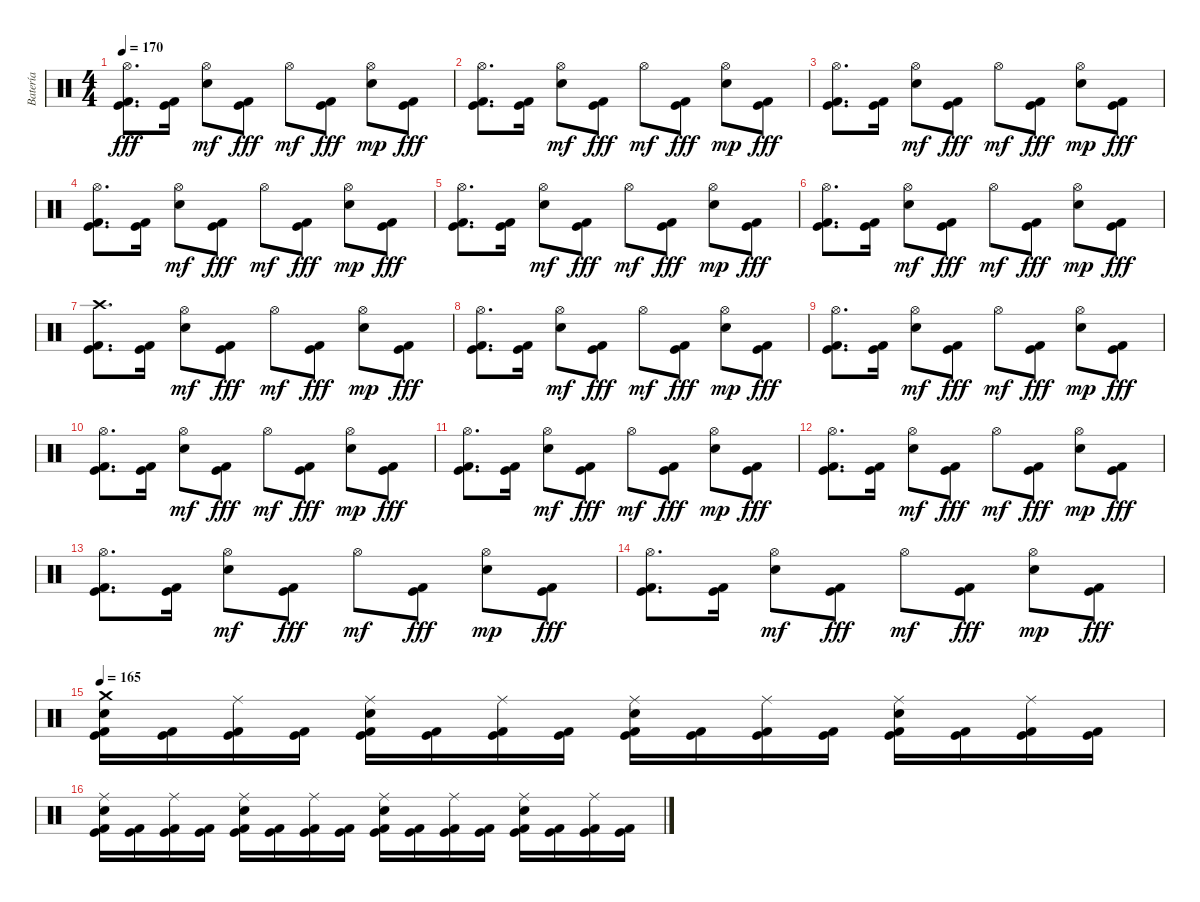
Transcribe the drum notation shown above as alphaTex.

\track ("Batería" "Batería") {instrument percussion}
\staff {score}
\articulation defaults
\ts (4 4)
\tempo 170
\clef neutral
\ks c
("Hi-Hat (open)" "Kick (hit) 2" "Kick (hit)").8{d dy fff} ("Kick (hit) 2" "Kick (hit)").16 ("Hi-Hat (open)" "Electric Snare (hit)").8{dy mf} ("Kick (hit) 2" "Kick (hit)").8{dy fff} "Hi-Hat (open)".8{dy mf} ("Kick (hit) 2" "Kick (hit)").8{dy fff} ("Hi-Hat (open)" "Electric Snare (hit)").8{dy mp} ("Kick (hit) 2" "Kick (hit)").8{dy fff} |
("Hi-Hat (open)" "Kick (hit) 2" "Kick (hit)").8{d} ("Kick (hit) 2" "Kick (hit)").16 ("Hi-Hat (open)" "Electric Snare (hit)").8{dy mf} ("Kick (hit) 2" "Kick (hit)").8{dy fff} "Hi-Hat (open)".8{dy mf} ("Kick (hit) 2" "Kick (hit)").8{dy fff} ("Hi-Hat (open)" "Electric Snare (hit)").8{dy mp} ("Kick (hit) 2" "Kick (hit)").8{dy fff} |
("Hi-Hat (open)" "Kick (hit) 2" "Kick (hit)").8{d} ("Kick (hit) 2" "Kick (hit)").16 ("Hi-Hat (open)" "Electric Snare (hit)").8{dy mf} ("Kick (hit) 2" "Kick (hit)").8{dy fff} "Hi-Hat (open)".8{dy mf} ("Kick (hit) 2" "Kick (hit)").8{dy fff} ("Hi-Hat (open)" "Electric Snare (hit)").8{dy mp} ("Kick (hit) 2" "Kick (hit)").8{dy fff} |
("Hi-Hat (open)" "Kick (hit) 2" "Kick (hit)").8{d} ("Kick (hit) 2" "Kick (hit)").16 ("Hi-Hat (open)" "Electric Snare (hit)").8{dy mf} ("Kick (hit) 2" "Kick (hit)").8{dy fff} "Hi-Hat (open)".8{dy mf} ("Kick (hit) 2" "Kick (hit)").8{dy fff} ("Hi-Hat (open)" "Electric Snare (hit)").8{dy mp} ("Kick (hit) 2" "Kick (hit)").8{dy fff} |
("Hi-Hat (open)" "Kick (hit) 2" "Kick (hit)").8{d} ("Kick (hit) 2" "Kick (hit)").16 ("Hi-Hat (open)" "Electric Snare (hit)").8{dy mf} ("Kick (hit) 2" "Kick (hit)").8{dy fff} "Hi-Hat (open)".8{dy mf} ("Kick (hit) 2" "Kick (hit)").8{dy fff} ("Hi-Hat (open)" "Electric Snare (hit)").8{dy mp} ("Kick (hit) 2" "Kick (hit)").8{dy fff} |
("Hi-Hat (open)" "Kick (hit) 2" "Kick (hit)").8{d} ("Kick (hit) 2" "Kick (hit)").16 ("Hi-Hat (open)" "Electric Snare (hit)").8{dy mf} ("Kick (hit) 2" "Kick (hit)").8{dy fff} "Hi-Hat (open)".8{dy mf} ("Kick (hit) 2" "Kick (hit)").8{dy fff} ("Hi-Hat (open)" "Electric Snare (hit)").8{dy mp} ("Kick (hit) 2" "Kick (hit)").8{dy fff} |
("Crash high (hit)" "Kick (hit) 2" "Kick (hit)").8{d} ("Kick (hit) 2" "Kick (hit)").16 ("Hi-Hat (open)" "Electric Snare (hit)").8{dy mf} ("Kick (hit) 2" "Kick (hit)").8{dy fff} "Hi-Hat (open)".8{dy mf} ("Kick (hit) 2" "Kick (hit)").8{dy fff} ("Hi-Hat (open)" "Electric Snare (hit)").8{dy mp} ("Kick (hit) 2" "Kick (hit)").8{dy fff} |
("Hi-Hat (open)" "Kick (hit) 2" "Kick (hit)").8{d} ("Kick (hit) 2" "Kick (hit)").16 ("Hi-Hat (open)" "Electric Snare (hit)").8{dy mf} ("Kick (hit) 2" "Kick (hit)").8{dy fff} "Hi-Hat (open)".8{dy mf} ("Kick (hit) 2" "Kick (hit)").8{dy fff} ("Hi-Hat (open)" "Electric Snare (hit)").8{dy mp} ("Kick (hit) 2" "Kick (hit)").8{dy fff} |
("Hi-Hat (open)" "Kick (hit) 2" "Kick (hit)").8{d} ("Kick (hit) 2" "Kick (hit)").16 ("Hi-Hat (open)" "Electric Snare (hit)").8{dy mf} ("Kick (hit) 2" "Kick (hit)").8{dy fff} "Hi-Hat (open)".8{dy mf} ("Kick (hit) 2" "Kick (hit)").8{dy fff} ("Hi-Hat (open)" "Electric Snare (hit)").8{dy mp} ("Kick (hit) 2" "Kick (hit)").8{dy fff} |
("Hi-Hat (open)" "Kick (hit) 2" "Kick (hit)").8{d} ("Kick (hit) 2" "Kick (hit)").16 ("Hi-Hat (open)" "Electric Snare (hit)").8{dy mf} ("Kick (hit) 2" "Kick (hit)").8{dy fff} "Hi-Hat (open)".8{dy mf} ("Kick (hit) 2" "Kick (hit)").8{dy fff} ("Hi-Hat (open)" "Electric Snare (hit)").8{dy mp} ("Kick (hit) 2" "Kick (hit)").8{dy fff} |
("Hi-Hat (open)" "Kick (hit) 2" "Kick (hit)").8{d} ("Kick (hit) 2" "Kick (hit)").16 ("Hi-Hat (open)" "Electric Snare (hit)").8{dy mf} ("Kick (hit) 2" "Kick (hit)").8{dy fff} "Hi-Hat (open)".8{dy mf} ("Kick (hit) 2" "Kick (hit)").8{dy fff} ("Hi-Hat (open)" "Electric Snare (hit)").8{dy mp} ("Kick (hit) 2" "Kick (hit)").8{dy fff} |
("Hi-Hat (open)" "Kick (hit) 2" "Kick (hit)").8{d} ("Kick (hit) 2" "Kick (hit)").16 ("Hi-Hat (open)" "Electric Snare (hit)").8{dy mf} ("Kick (hit) 2" "Kick (hit)").8{dy fff} "Hi-Hat (open)".8{dy mf} ("Kick (hit) 2" "Kick (hit)").8{dy fff} ("Hi-Hat (open)" "Electric Snare (hit)").8{dy mp} ("Kick (hit) 2" "Kick (hit)").8{dy fff} |
("Hi-Hat (open)" "Kick (hit) 2" "Kick (hit)").8{d} ("Kick (hit) 2" "Kick (hit)").16 ("Hi-Hat (open)" "Electric Snare (hit)").8{dy mf} ("Kick (hit) 2" "Kick (hit)").8{dy fff} "Hi-Hat (open)".8{dy mf} ("Kick (hit) 2" "Kick (hit)").8{dy fff} ("Hi-Hat (open)" "Electric Snare (hit)").8{dy mp} ("Kick (hit) 2" "Kick (hit)").8{dy fff} |
("Hi-Hat (open)" "Kick (hit) 2" "Kick (hit)").8{d} ("Kick (hit) 2" "Kick (hit)").16 ("Hi-Hat (open)" "Electric Snare (hit)").8{dy mf} ("Kick (hit) 2" "Kick (hit)").8{dy fff} "Hi-Hat (open)".8{dy mf} ("Kick (hit) 2" "Kick (hit)").8{dy fff} ("Hi-Hat (open)" "Electric Snare (hit)").8{dy mp} ("Kick (hit) 2" "Kick (hit)").8{dy fff} |
\tempo 165
("Crash medium (hit)" "Electric Snare (hit)" "Kick (hit) 2" "Kick (hit)").16 ("Kick (hit) 2" "Kick (hit)").16 ("Ride (middle)" "Kick (hit) 2" "Kick (hit)").16 ("Kick (hit) 2" "Kick (hit)").16 ("Ride (middle)" "Electric Snare (hit)" "Kick (hit) 2" "Kick (hit)").16 ("Kick (hit) 2" "Kick (hit)").16 ("Ride (middle)" "Kick (hit) 2" "Kick (hit)").16 ("Kick (hit) 2" "Kick (hit)").16 ("Ride (middle)" "Electric Snare (hit)" "Kick (hit) 2" "Kick (hit)").16 ("Kick (hit) 2" "Kick (hit)").16 ("Ride (middle)" "Kick (hit) 2" "Kick (hit)").16 ("Kick (hit) 2" "Kick (hit)").16 ("Ride (middle)" "Electric Snare (hit)" "Kick (hit) 2" "Kick (hit)").16 ("Kick (hit) 2" "Kick (hit)").16 ("Ride (middle)" "Kick (hit) 2" "Kick (hit)").16 ("Kick (hit) 2" "Kick (hit)").16 |
("Ride (middle)" "Electric Snare (hit)" "Kick (hit) 2" "Kick (hit)").16 ("Kick (hit) 2" "Kick (hit)").16 ("Ride (middle)" "Kick (hit) 2" "Kick (hit)").16 ("Kick (hit) 2" "Kick (hit)").16 ("Ride (middle)" "Electric Snare (hit)" "Kick (hit) 2" "Kick (hit)").16 ("Kick (hit) 2" "Kick (hit)").16 ("Ride (middle)" "Kick (hit) 2" "Kick (hit)").16 ("Kick (hit) 2" "Kick (hit)").16 ("Ride (middle)" "Electric Snare (hit)" "Kick (hit) 2" "Kick (hit)").16 ("Kick (hit) 2" "Kick (hit)").16 ("Ride (middle)" "Kick (hit) 2" "Kick (hit)").16 ("Kick (hit) 2" "Kick (hit)").16 ("Ride (middle)" "Electric Snare (hit)" "Kick (hit) 2" "Kick (hit)").16 ("Kick (hit) 2" "Kick (hit)").16 ("Ride (middle)" "Kick (hit) 2" "Kick (hit)").16 ("Kick (hit) 2" "Kick (hit)").16
